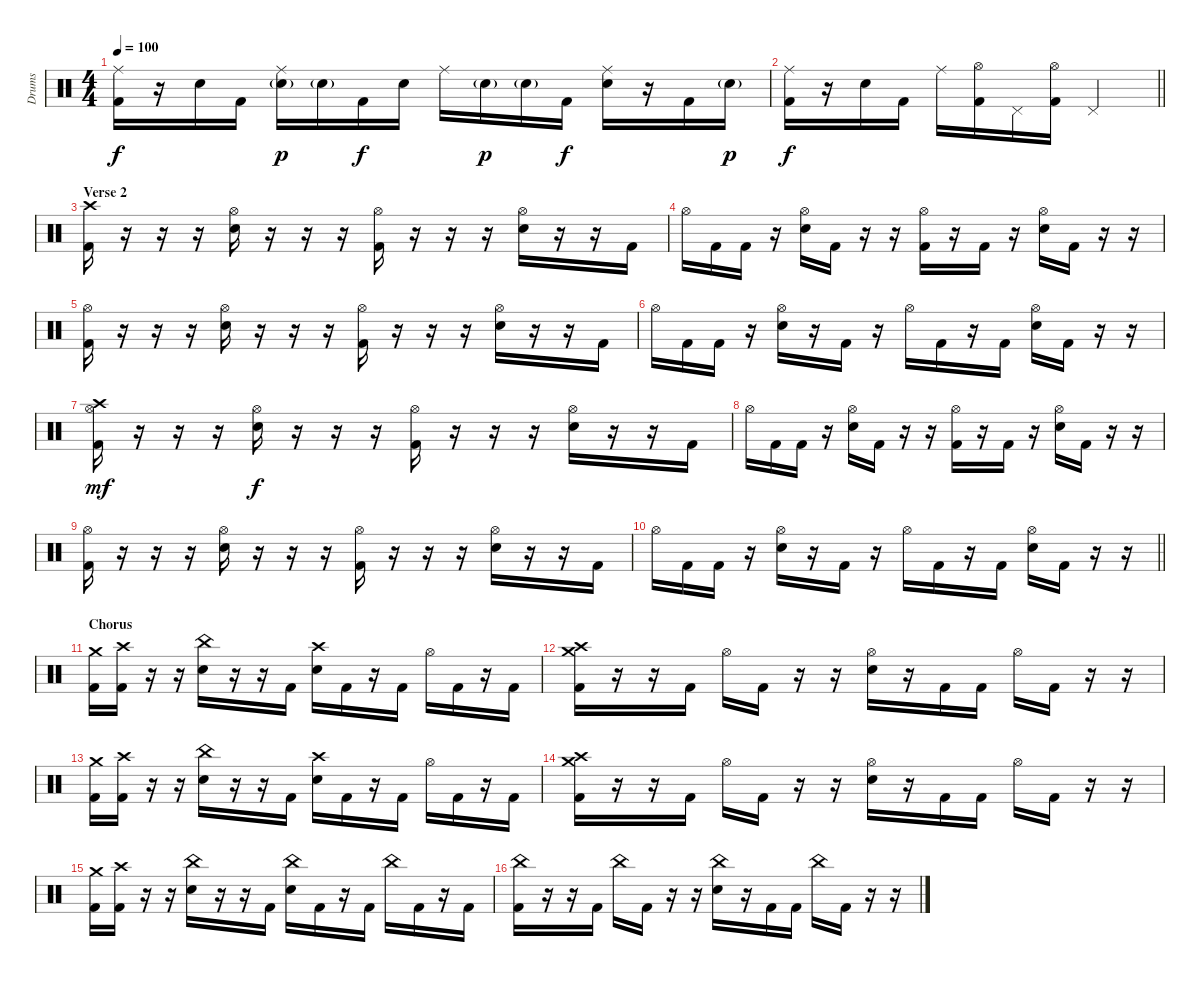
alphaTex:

\track ("Drums" "Drums") {instrument percussion}
\staff {score}
\articulation defaults
\ts (4 4)
\tempo 100
\clef neutral
\ks c
("Ride (middle)" "Kick (hit) 2").16{dy f} r.16 "Snare (hit) 2".16 "Kick (hit) 2".16 ("Ride (middle)" "Snare (hit) 2"{g}).16{dy p} "Snare (hit) 2"{g}.16 "Kick (hit) 2".16{dy f} "Snare (hit) 2".16 "Ride (middle)".16 "Snare (hit) 2"{g}.16{dy p} "Snare (hit) 2"{g}.16 "Kick (hit) 2".16{dy f} ("Ride (middle)" "Snare (hit) 2").16 r.16 "Kick (hit) 2".16 "Snare (hit) 2"{g}.16{dy p} |
\barLineRight lightlight
("Ride (middle)" "Kick (hit) 2").16{dy f} r.16 "Snare (hit) 2".16 "Kick (hit) 2".16 "Ride (middle)".16 ("Hi-Hat (open)" "Kick (hit) 2").16 "Pedal Hi-Hat (hit)".16 ("Hi-Hat (open)" "Kick (hit) 2").16 "Pedal Hi-Hat (hit)".2 |
\section ("" "Verse 2")
("Crash high (hit)" "Kick (hit) 2").16 r.16 r.16 r.16 ("Hi-Hat (open)" "Snare (hit) 2").16 r.16 r.16 r.16 ("Hi-Hat (open)" "Kick (hit) 2").16 r.16 r.16 r.16 ("Hi-Hat (open)" "Snare (hit) 2").16 r.16 r.16 "Kick (hit) 2".16 |
"Hi-Hat (open)".16 "Kick (hit) 2".16 "Kick (hit) 2".16 r.16 ("Hi-Hat (open)" "Snare (hit) 2").16 "Kick (hit) 2".16 r.16 r.16 ("Hi-Hat (open)" "Kick (hit) 2").16 r.16 "Kick (hit) 2".16 r.16 ("Hi-Hat (open)" "Snare (hit) 2").16 "Kick (hit) 2".16 r.16 r.16 |
("Hi-Hat (open)" "Kick (hit) 2").16 r.16 r.16 r.16 ("Hi-Hat (open)" "Snare (hit) 2").16 r.16 r.16 r.16 ("Hi-Hat (open)" "Kick (hit) 2").16 r.16 r.16 r.16 ("Hi-Hat (open)" "Snare (hit) 2").16 r.16 r.16 "Kick (hit) 2".16 |
"Hi-Hat (open)".16 "Kick (hit) 2".16 "Kick (hit) 2".16 r.16 ("Hi-Hat (open)" "Snare (hit) 2").16 r.16 "Kick (hit) 2".16 r.16 "Hi-Hat (open)".16 "Kick (hit) 2".16 r.16 "Kick (hit) 2".16 ("Hi-Hat (open)" "Snare (hit) 2").16 "Kick (hit) 2".16 r.16 r.16 |
("Crash high (hit)" "Hi-Hat (open)" "Kick (hit) 2").16{dy mf} r.16 r.16 r.16 ("Hi-Hat (open)" "Snare (hit) 2").16{dy f} r.16 r.16 r.16 ("Hi-Hat (open)" "Kick (hit) 2").16 r.16 r.16 r.16 ("Hi-Hat (open)" "Snare (hit) 2").16 r.16 r.16 "Kick (hit) 2".16 |
"Hi-Hat (open)".16 "Kick (hit) 2".16 "Kick (hit) 2".16 r.16 ("Hi-Hat (open)" "Snare (hit) 2").16 "Kick (hit) 2".16 r.16 r.16 ("Hi-Hat (open)" "Kick (hit) 2").16 r.16 "Kick (hit) 2".16 r.16 ("Hi-Hat (open)" "Snare (hit) 2").16 "Kick (hit) 2".16 r.16 r.16 |
("Hi-Hat (open)" "Kick (hit) 2").16 r.16 r.16 r.16 ("Hi-Hat (open)" "Snare (hit) 2").16 r.16 r.16 r.16 ("Hi-Hat (open)" "Kick (hit) 2").16 r.16 r.16 r.16 ("Hi-Hat (open)" "Snare (hit) 2").16 r.16 r.16 "Kick (hit) 2".16 |
\barLineRight lightlight "Hi-Hat (open)".16 "Kick (hit) 2".16 "Kick (hit) 2".16
r.16 ("Hi-Hat (open)" "Snare (hit) 2").16 r.16 "Kick (hit) 2".16 r.16 "Hi-Hat (open)".16 "Kick (hit) 2".16 r.16 "Kick (hit) 2".16 ("Hi-Hat (open)" "Snare (hit) 2").16 "Kick (hit) 2".16 r.16 r.16 |
\section ("" "Chorus")
("Crash medium (hit)" "Kick (hit) 2").16 ("Crash high (hit)" "Kick (hit) 2").16 r.16 r.16 ("China (hit)" "Snare (hit) 2").16 r.16 r.16 "Kick (hit) 2".16 ("Crash high (hit)" "Snare (hit) 2").16 "Kick (hit) 2".16 r.16 "Kick (hit) 2".16 "Hi-Hat (open)".16 "Kick (hit) 2".16 r.16 "Kick (hit) 2".16 |
("Crash high (hit)" "Crash medium (hit)" "Kick (hit) 2").16 r.16 r.16 "Kick (hit) 2".16 "Hi-Hat (open)".16 "Kick (hit) 2".16 r.16 r.16 ("Hi-Hat (open)" "Snare (hit) 2").16 r.16 "Kick (hit) 2".16 "Kick (hit) 2".16 "Hi-Hat (open)".16 "Kick (hit) 2".16 r.16 r.16 |
("Crash medium (hit)" "Kick (hit) 2").16 ("Crash high (hit)" "Kick (hit) 2").16 r.16 r.16 ("China (hit)" "Snare (hit) 2").16 r.16 r.16 "Kick (hit) 2".16 ("Crash high (hit)" "Snare (hit) 2").16 "Kick (hit) 2".16 r.16 "Kick (hit) 2".16 "Hi-Hat (open)".16 "Kick (hit) 2".16 r.16 "Kick (hit) 2".16 |
("Crash high (hit)" "Crash medium (hit)" "Kick (hit) 2").16 r.16 r.16 "Kick (hit) 2".16 "Hi-Hat (open)".16 "Kick (hit) 2".16 r.16 r.16 ("Hi-Hat (open)" "Snare (hit) 2").16 r.16 "Kick (hit) 2".16 "Kick (hit) 2".16 "Hi-Hat (open)".16 "Kick (hit) 2".16 r.16 r.16 |
("Crash medium (hit)" "Kick (hit) 2").16 ("Crash high (hit)" "Kick (hit) 2").16 r.16 r.16 ("China (hit)" "Snare (hit) 2").16 r.16 r.16 "Kick (hit) 2".16 ("China (hit)" "Snare (hit) 2").16 "Kick (hit) 2".16 r.16 "Kick (hit) 2".16 "China (hit)".16 "Kick (hit) 2".16 r.16 "Kick (hit) 2".16 |
("China (hit)" "Kick (hit) 2").16 r.16 r.16 "Kick (hit) 2".16 "China (hit)".16 "Kick (hit) 2".16 r.16 r.16 ("China (hit)" "Snare (hit) 2").16 r.16 "Kick (hit) 2".16 "Kick (hit) 2".16 "China (hit)".16 "Kick (hit) 2".16 r.16 r.16
